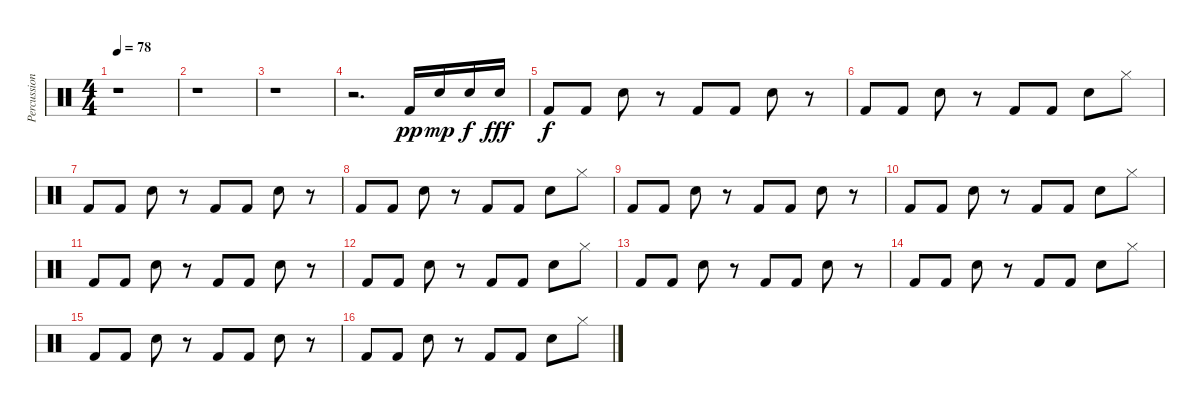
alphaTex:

\track ("Percussions" "Percussion") {instrument percussion}
\staff {score}
\articulation defaults
\ts (4 4)
\tempo 78
\clef neutral
\ks c
r.1{dy pp} |
r.1 |
r.1 |
r.2{d} "Kick (hit) 2".16 "Electric Snare (hit)".16{dy mp} "Electric Snare (hit)".16{dy f} "Electric Snare (hit)".16{dy fff} |
"Kick (hit) 2".8{dy f} "Kick (hit) 2".8 "Electric Snare (hit)".8 r.8 "Kick (hit) 2".8 "Kick (hit) 2".8 "Electric Snare (hit)".8 r.8 |
"Kick (hit) 2".8 "Kick (hit) 2".8 "Electric Snare (hit)".8 r.8 "Kick (hit) 2".8 "Kick (hit) 2".8 "Electric Snare (hit)".8 "Hi-Hat (closed)".8 |
"Kick (hit) 2".8 "Kick (hit) 2".8 "Electric Snare (hit)".8 r.8 "Kick (hit) 2".8 "Kick (hit) 2".8 "Electric Snare (hit)".8 r.8 |
"Kick (hit) 2".8 "Kick (hit) 2".8 "Electric Snare (hit)".8 r.8 "Kick (hit) 2".8 "Kick (hit) 2".8 "Electric Snare (hit)".8 "Hi-Hat (closed)".8 |
"Kick (hit) 2".8 "Kick (hit) 2".8 "Electric Snare (hit)".8 r.8 "Kick (hit) 2".8 "Kick (hit) 2".8 "Electric Snare (hit)".8 r.8 |
"Kick (hit) 2".8 "Kick (hit) 2".8 "Electric Snare (hit)".8 r.8 "Kick (hit) 2".8 "Kick (hit) 2".8 "Electric Snare (hit)".8 "Hi-Hat (closed)".8 |
"Kick (hit) 2".8 "Kick (hit) 2".8 "Electric Snare (hit)".8 r.8 "Kick (hit) 2".8 "Kick (hit) 2".8 "Electric Snare (hit)".8 r.8 |
"Kick (hit) 2".8 "Kick (hit) 2".8 "Electric Snare (hit)".8 r.8 "Kick (hit) 2".8 "Kick (hit) 2".8 "Electric Snare (hit)".8 "Hi-Hat (closed)".8 |
"Kick (hit) 2".8 "Kick (hit) 2".8 "Electric Snare (hit)".8 r.8 "Kick (hit) 2".8 "Kick (hit) 2".8 "Electric Snare (hit)".8 r.8 |
"Kick (hit) 2".8 "Kick (hit) 2".8 "Electric Snare (hit)".8 r.8 "Kick (hit) 2".8 "Kick (hit) 2".8 "Electric Snare (hit)".8 "Hi-Hat (closed)".8 |
"Kick (hit) 2".8 "Kick (hit) 2".8 "Electric Snare (hit)".8 r.8 "Kick (hit) 2".8 "Kick (hit) 2".8 "Electric Snare (hit)".8 r.8 |
"Kick (hit) 2".8 "Kick (hit) 2".8 "Electric Snare (hit)".8 r.8 "Kick (hit) 2".8 "Kick (hit) 2".8 "Electric Snare (hit)".8 "Hi-Hat (closed)".8
